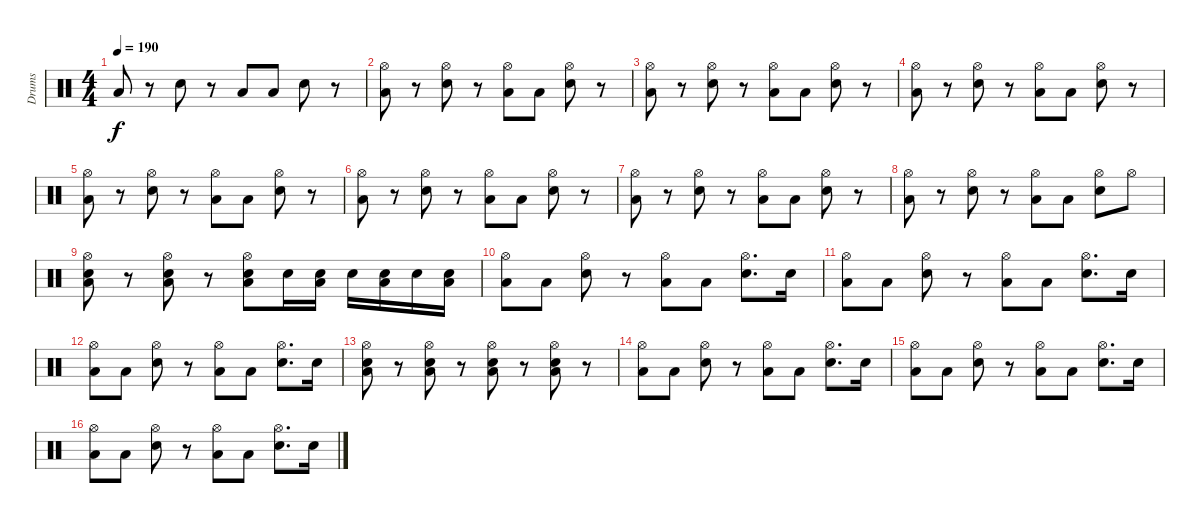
\track ("Drums" "Drums") {instrument percussion}
\staff {score}
\articulation defaults
\ts (4 4)
\tempo 190
\clef neutral
\ks c "Low Tom (hit)".8{dy f}
r.8 "Electric Snare (hit)".8 r.8 "Low Tom (hit)".8 "Low Tom (hit)".8 "Electric Snare (hit)".8 r.8 |
("Low Tom (hit)" "Hi-Hat (open)").8 r.8 ("Electric Snare (hit)" "Hi-Hat (open)").8 r.8 ("Low Tom (hit)" "Hi-Hat (open)").8 "Low Tom (hit)".8 ("Electric Snare (hit)" "Hi-Hat (open)").8 r.8 |
("Low Tom (hit)" "Hi-Hat (open)").8 r.8 ("Electric Snare (hit)" "Hi-Hat (open)").8 r.8 ("Low Tom (hit)" "Hi-Hat (open)").8 "Low Tom (hit)".8 ("Electric Snare (hit)" "Hi-Hat (open)").8 r.8 |
("Low Tom (hit)" "Hi-Hat (open)").8 r.8 ("Electric Snare (hit)" "Hi-Hat (open)").8 r.8 ("Low Tom (hit)" "Hi-Hat (open)").8 "Low Tom (hit)".8 ("Electric Snare (hit)" "Hi-Hat (open)").8 r.8 |
("Low Tom (hit)" "Hi-Hat (open)").8 r.8 ("Electric Snare (hit)" "Hi-Hat (open)").8 r.8 ("Low Tom (hit)" "Hi-Hat (open)").8 "Low Tom (hit)".8 ("Electric Snare (hit)" "Hi-Hat (open)").8 r.8 |
("Low Tom (hit)" "Hi-Hat (open)").8 r.8 ("Electric Snare (hit)" "Hi-Hat (open)").8 r.8 ("Low Tom (hit)" "Hi-Hat (open)").8 "Low Tom (hit)".8 ("Electric Snare (hit)" "Hi-Hat (open)").8 r.8 |
("Low Tom (hit)" "Hi-Hat (open)").8 r.8 ("Electric Snare (hit)" "Hi-Hat (open)").8 r.8 ("Low Tom (hit)" "Hi-Hat (open)").8 "Low Tom (hit)".8 ("Electric Snare (hit)" "Hi-Hat (open)").8 r.8 |
("Low Tom (hit)" "Hi-Hat (open)").8 r.8 ("Electric Snare (hit)" "Hi-Hat (open)").8 r.8 ("Low Tom (hit)" "Hi-Hat (open)").8 "Low Tom (hit)".8 ("Electric Snare (hit)" "Hi-Hat (open)").8 "Hi-Hat (open)".8 |
("Electric Snare (hit)" "Low Tom (hit)" "Hi-Hat (open)").8 r.8 ("Electric Snare (hit)" "Low Tom (hit)" "Hi-Hat (open)").8 r.8 ("Electric Snare (hit)" "Low Tom (hit)" "Hi-Hat (open)").8 "Electric Snare (hit)".16 ("Electric Snare (hit)" "Low Tom (hit)").16 "Electric Snare (hit)".16 ("Electric Snare (hit)" "Low Tom (hit)").16 "Electric Snare (hit)".16 ("Electric Snare (hit)" "Low Tom (hit)").16 |
("Low Tom (hit)" "Hi-Hat (open)").8 "Low Tom (hit)".8 ("Electric Snare (hit)" "Hi-Hat (open)").8 r.8 ("Low Tom (hit)" "Hi-Hat (open)").8 "Low Tom (hit)".8 ("Electric Snare (hit)" "Hi-Hat (open)").8{d} "Electric Snare (hit)".16 |
("Low Tom (hit)" "Hi-Hat (open)").8 "Low Tom (hit)".8 ("Electric Snare (hit)" "Hi-Hat (open)").8 r.8 ("Low Tom (hit)" "Hi-Hat (open)").8 "Low Tom (hit)".8 ("Electric Snare (hit)" "Hi-Hat (open)").8{d} "Electric Snare (hit)".16 |
("Low Tom (hit)" "Hi-Hat (open)").8 "Low Tom (hit)".8 ("Electric Snare (hit)" "Hi-Hat (open)").8 r.8 ("Low Tom (hit)" "Hi-Hat (open)").8 "Low Tom (hit)".8 ("Electric Snare (hit)" "Hi-Hat (open)").8{d} "Electric Snare (hit)".16 |
("Electric Snare (hit)" "Low Tom (hit)" "Hi-Hat (open)").8 r.8 ("Electric Snare (hit)" "Low Tom (hit)" "Hi-Hat (open)").8 r.8 ("Electric Snare (hit)" "Low Tom (hit)" "Hi-Hat (open)").8 r.8 ("Electric Snare (hit)" "Low Tom (hit)" "Hi-Hat (open)").8 r.8 |
("Low Tom (hit)" "Hi-Hat (open)").8 "Low Tom (hit)".8 ("Electric Snare (hit)" "Hi-Hat (open)").8 r.8 ("Low Tom (hit)" "Hi-Hat (open)").8 "Low Tom (hit)".8 ("Electric Snare (hit)" "Hi-Hat (open)").8{d} "Electric Snare (hit)".16 |
("Low Tom (hit)" "Hi-Hat (open)").8 "Low Tom (hit)".8 ("Electric Snare (hit)" "Hi-Hat (open)").8 r.8 ("Low Tom (hit)" "Hi-Hat (open)").8 "Low Tom (hit)".8 ("Electric Snare (hit)" "Hi-Hat (open)").8{d} "Electric Snare (hit)".16 |
("Low Tom (hit)" "Hi-Hat (open)").8 "Low Tom (hit)".8 ("Electric Snare (hit)" "Hi-Hat (open)").8 r.8 ("Low Tom (hit)" "Hi-Hat (open)").8 "Low Tom (hit)".8 ("Electric Snare (hit)" "Hi-Hat (open)").8{d} "Electric Snare (hit)".16
